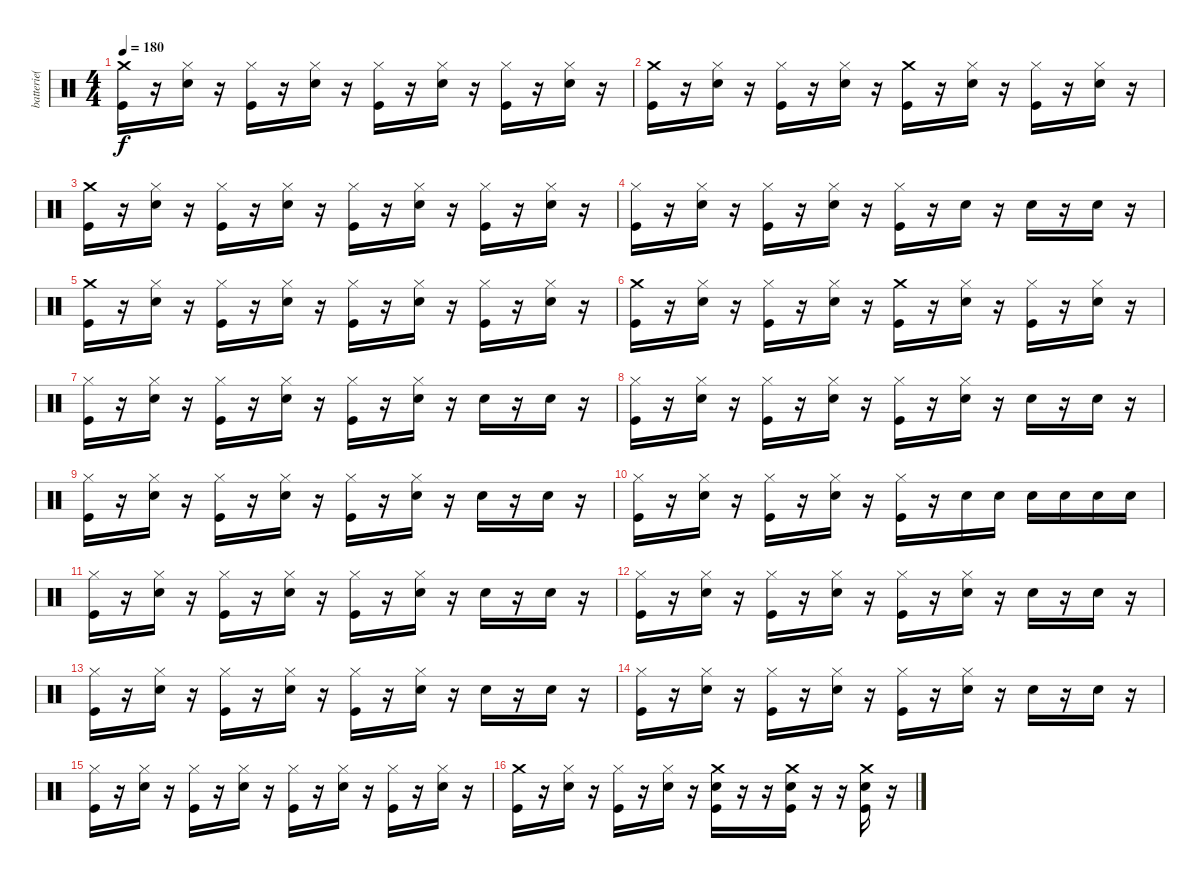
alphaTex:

\track ("batterie( Shawn )" "batterie( ") {instrument percussion}
\staff {score}
\articulation defaults
\ts (4 4)
\tempo 180
\clef neutral
\ks c
("Crash medium (hit)" "Kick (hit)").16{dy f} r.16 ("Hi-Hat (closed)" "Snare (hit) 2").16 r.16 ("Hi-Hat (closed)" "Kick (hit)").16 r.16 ("Hi-Hat (closed)" "Snare (hit) 2").16 r.16 ("Hi-Hat (closed)" "Kick (hit)").16 r.16 ("Hi-Hat (closed)" "Snare (hit) 2").16 r.16 ("Hi-Hat (closed)" "Kick (hit)").16 r.16 ("Hi-Hat (closed)" "Snare (hit) 2").16 r.16 |
("Crash medium (hit)" "Kick (hit)").16 r.16 ("Hi-Hat (closed)" "Snare (hit) 2").16 r.16 ("Hi-Hat (closed)" "Kick (hit)").16 r.16 ("Hi-Hat (closed)" "Snare (hit) 2").16 r.16 ("Crash medium (hit)" "Kick (hit)").16 r.16 ("Hi-Hat (closed)" "Snare (hit) 2").16 r.16 ("Hi-Hat (closed)" "Kick (hit)").16 r.16 ("Hi-Hat (closed)" "Snare (hit) 2").16 r.16 |
("Crash medium (hit)" "Kick (hit)").16 r.16 ("Hi-Hat (closed)" "Snare (hit) 2").16 r.16 ("Hi-Hat (closed)" "Kick (hit)").16 r.16 ("Hi-Hat (closed)" "Snare (hit) 2").16 r.16 ("Hi-Hat (closed)" "Kick (hit)").16 r.16 ("Hi-Hat (closed)" "Snare (hit) 2").16 r.16 ("Hi-Hat (closed)" "Kick (hit)").16 r.16 ("Hi-Hat (closed)" "Snare (hit) 2").16 r.16 |
("Hi-Hat (closed)" "Kick (hit)").16 r.16 ("Hi-Hat (closed)" "Snare (hit) 2").16 r.16 ("Hi-Hat (closed)" "Kick (hit)").16 r.16 ("Hi-Hat (closed)" "Snare (hit) 2").16 r.16 ("Hi-Hat (closed)" "Kick (hit)").16 r.16 "Snare (hit) 2".16 r.16 "Snare (hit) 2".16 r.16 "Snare (hit) 2".16 r.16 |
("Crash medium (hit)" "Kick (hit)").16 r.16 ("Hi-Hat (closed)" "Snare (hit) 2").16 r.16 ("Hi-Hat (closed)" "Kick (hit)").16 r.16 ("Hi-Hat (closed)" "Snare (hit) 2").16 r.16 ("Hi-Hat (closed)" "Kick (hit)").16 r.16 ("Hi-Hat (closed)" "Snare (hit) 2").16 r.16 ("Hi-Hat (closed)" "Kick (hit)").16 r.16 ("Hi-Hat (closed)" "Snare (hit) 2").16 r.16 |
("Crash medium (hit)" "Kick (hit)").16 r.16 ("Hi-Hat (closed)" "Snare (hit) 2").16 r.16 ("Hi-Hat (closed)" "Kick (hit)").16 r.16 ("Hi-Hat (closed)" "Snare (hit) 2").16 r.16 ("Crash medium (hit)" "Kick (hit)").16 r.16 ("Hi-Hat (closed)" "Snare (hit) 2").16 r.16 ("Hi-Hat (closed)" "Kick (hit)").16 r.16 ("Hi-Hat (closed)" "Snare (hit) 2").16 r.16 |
("Hi-Hat (closed)" "Kick (hit)").16 r.16 ("Hi-Hat (closed)" "Snare (hit) 2").16 r.16 ("Hi-Hat (closed)" "Kick (hit)").16 r.16 ("Hi-Hat (closed)" "Snare (hit) 2").16 r.16 ("Hi-Hat (closed)" "Kick (hit)").16 r.16 ("Hi-Hat (closed)" "Snare (hit) 2").16 r.16 "Snare (hit) 2".16 r.16 "Snare (hit) 2".16 r.16 |
("Hi-Hat (closed)" "Kick (hit)").16 r.16 ("Hi-Hat (closed)" "Snare (hit) 2").16 r.16 ("Hi-Hat (closed)" "Kick (hit)").16 r.16 ("Hi-Hat (closed)" "Snare (hit) 2").16 r.16 ("Hi-Hat (closed)" "Kick (hit)").16 r.16 ("Hi-Hat (closed)" "Snare (hit) 2").16 r.16 "Snare (hit) 2".16 r.16 "Snare (hit) 2".16 r.16 |
("Hi-Hat (closed)" "Kick (hit)").16 r.16 ("Hi-Hat (closed)" "Snare (hit) 2").16 r.16 ("Hi-Hat (closed)" "Kick (hit)").16 r.16 ("Hi-Hat (closed)" "Snare (hit) 2").16 r.16 ("Hi-Hat (closed)" "Kick (hit)").16 r.16 ("Hi-Hat (closed)" "Snare (hit) 2").16 r.16 "Snare (hit) 2".16 r.16 "Snare (hit) 2".16 r.16 |
("Hi-Hat (closed)" "Kick (hit)").16 r.16 ("Hi-Hat (closed)" "Snare (hit) 2").16 r.16 ("Hi-Hat (closed)" "Kick (hit)").16 r.16 ("Hi-Hat (closed)" "Snare (hit) 2").16 r.16 ("Hi-Hat (closed)" "Kick (hit)").16 r.16 "Snare (hit) 2".16 "Snare (hit) 2".16 "Snare (hit) 2".16 "Snare (hit) 2".16 "Snare (hit) 2".16 "Snare (hit) 2".16 |
("Hi-Hat (closed)" "Kick (hit)").16 r.16 ("Hi-Hat (closed)" "Snare (hit) 2").16 r.16 ("Hi-Hat (closed)" "Kick (hit)").16 r.16 ("Hi-Hat (closed)" "Snare (hit) 2").16 r.16 ("Hi-Hat (closed)" "Kick (hit)").16 r.16 ("Hi-Hat (closed)" "Snare (hit) 2").16 r.16 "Snare (hit) 2".16 r.16 "Snare (hit) 2".16 r.16 |
("Hi-Hat (closed)" "Kick (hit)").16 r.16 ("Hi-Hat (closed)" "Snare (hit) 2").16 r.16 ("Hi-Hat (closed)" "Kick (hit)").16 r.16 ("Hi-Hat (closed)" "Snare (hit) 2").16 r.16 ("Hi-Hat (closed)" "Kick (hit)").16 r.16 ("Hi-Hat (closed)" "Snare (hit) 2").16 r.16 "Snare (hit) 2".16 r.16 "Snare (hit) 2".16 r.16 |
("Hi-Hat (closed)" "Kick (hit)").16 r.16 ("Hi-Hat (closed)" "Snare (hit) 2").16 r.16 ("Hi-Hat (closed)" "Kick (hit)").16 r.16 ("Hi-Hat (closed)" "Snare (hit) 2").16 r.16 ("Hi-Hat (closed)" "Kick (hit)").16 r.16 ("Hi-Hat (closed)" "Snare (hit) 2").16 r.16 "Snare (hit) 2".16 r.16 "Snare (hit) 2".16 r.16 |
("Hi-Hat (closed)" "Kick (hit)").16 r.16 ("Hi-Hat (closed)" "Snare (hit) 2").16 r.16 ("Hi-Hat (closed)" "Kick (hit)").16 r.16 ("Hi-Hat (closed)" "Snare (hit) 2").16 r.16 ("Hi-Hat (closed)" "Kick (hit)").16 r.16 ("Hi-Hat (closed)" "Snare (hit) 2").16 r.16 "Snare (hit) 2".16 r.16 "Snare (hit) 2".16 r.16 |
("Hi-Hat (closed)" "Kick (hit)").16 r.16 ("Hi-Hat (closed)" "Snare (hit) 2").16 r.16 ("Hi-Hat (closed)" "Kick (hit)").16 r.16 ("Hi-Hat (closed)" "Snare (hit) 2").16 r.16 ("Hi-Hat (closed)" "Kick (hit)").16 r.16 ("Hi-Hat (closed)" "Snare (hit) 2").16 r.16 ("Hi-Hat (closed)" "Kick (hit)").16 r.16 ("Hi-Hat (closed)" "Snare (hit) 2").16 r.16 |
("Crash medium (hit)" "Kick (hit)").16 r.16 ("Hi-Hat (closed)" "Snare (hit) 2").16 r.16 ("Hi-Hat (closed)" "Kick (hit)").16 r.16 ("Hi-Hat (closed)" "Snare (hit) 2").16 r.16 ("Crash medium (hit)" "Snare (hit) 2" "Kick (hit)").16 r.16 r.16 ("Crash medium (hit)" "Snare (hit) 2" "Kick (hit)").16 r.16 r.16 ("Crash medium (hit)" "Snare (hit) 2" "Kick (hit)").16 r.16
